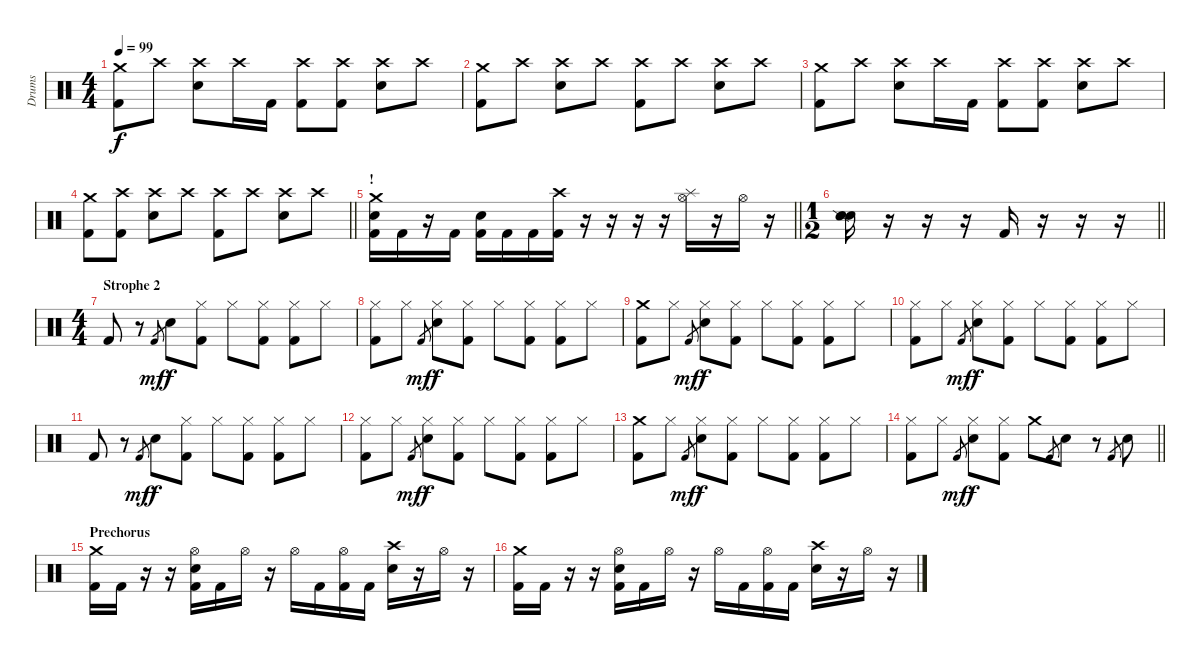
\track ("Drums" "Drums") {instrument percussion}
\staff {score}
\articulation defaults
\ts (4 4)
\tempo 99
\clef neutral
\ks c
("Crash medium (hit)" "Kick (hit) 2").8{dy f} "Crash high (hit)".8 ("Crash high (hit)" "Electric Snare (hit)").8 "Crash high (hit)".16 "Kick (hit) 2".16 ("Crash high (hit)" "Kick (hit) 2").8 ("Crash high (hit)" "Kick (hit) 2").8 ("Crash high (hit)" "Electric Snare (hit)").8 "Crash high (hit)".8 |
("Crash medium (hit)" "Kick (hit) 2").8 "Crash high (hit)".8 ("Crash high (hit)" "Electric Snare (hit)").8 "Crash high (hit)".8 ("Crash high (hit)" "Kick (hit) 2").8 "Crash high (hit)".8 ("Crash high (hit)" "Electric Snare (hit)").8 "Crash high (hit)".8 |
("Crash medium (hit)" "Kick (hit) 2").8 "Crash high (hit)".8 ("Crash high (hit)" "Electric Snare (hit)").8 "Crash high (hit)".16 "Kick (hit) 2".16 ("Crash high (hit)" "Kick (hit) 2").8 ("Crash high (hit)" "Kick (hit) 2").8 ("Crash high (hit)" "Electric Snare (hit)").8 "Crash high (hit)".8 |
\barLineRight lightlight
("Crash medium (hit)" "Kick (hit) 2").8 ("Crash high (hit)" "Kick (hit) 2").8 ("Crash high (hit)" "Electric Snare (hit)").8 "Crash high (hit)".8 ("Crash high (hit)" "Kick (hit) 2").8 "Crash high (hit)".8 ("Crash high (hit)" "Electric Snare (hit)").8 "Crash high (hit)".8 |
\section ("" "!")
\barLineRight lightlight
("Crash medium (hit)" "Electric Snare (hit)" "Kick (hit) 2").16 "Kick (hit) 2".16 r.16 "Kick (hit) 2".16 ("Electric Snare (hit)" "Kick (hit) 2").16 "Kick (hit) 2".16 "Kick (hit) 2".16 ("Crash high (hit)" "Kick (hit) 2").16 r.16 r.16 r.16 r.16 ("Splash (hit)" "Hi-Hat (open)").16 r.16 "Hi-Hat (open)".16 r.16 |
\ts (1 2)
\barLineRight lightlight
("Electric Snare (hit)" "Snare (hit) 2" "Snare (side stick) 2").16 r.16 r.16 r.16 "Kick (hit) 2".16 r.16 r.16 r.16 |
\ts (4 4)
\section ("" "Strophe 2")
"Kick (hit) 2".8 r.8 "Kick (hit) 2".8{gr dy mf} "Electric Snare (hit)".8{dy f} ("Hi-Hat (closed)" "Kick (hit) 2").8 "Hi-Hat (closed)".8 ("Hi-Hat (closed)" "Kick (hit) 2").8 ("Hi-Hat (closed)" "Kick (hit) 2").8 "Hi-Hat (closed)".8 |
("Hi-Hat (closed)" "Kick (hit) 2").8 "Hi-Hat (closed)".8 "Kick (hit) 2".8{gr dy mf} ("Hi-Hat (closed)" "Electric Snare (hit)").8{dy f} ("Hi-Hat (closed)" "Kick (hit) 2").8 "Hi-Hat (closed)".8 ("Hi-Hat (closed)" "Kick (hit) 2").8 ("Hi-Hat (closed)" "Kick (hit) 2").8 "Hi-Hat (closed)".8 |
("Crash medium (hit)" "Kick (hit) 2").8 "Hi-Hat (closed)".8 "Kick (hit) 2".8{gr dy mf} ("Hi-Hat (closed)" "Electric Snare (hit)").8{dy f} ("Hi-Hat (closed)" "Kick (hit) 2").8 "Hi-Hat (closed)".8 ("Hi-Hat (closed)" "Kick (hit) 2").8 ("Hi-Hat (closed)" "Kick (hit) 2").8 "Hi-Hat (closed)".8 |
("Hi-Hat (closed)" "Kick (hit) 2").8 "Hi-Hat (closed)".8 "Kick (hit) 2".8{gr dy mf} ("Hi-Hat (closed)" "Electric Snare (hit)").8{dy f} ("Hi-Hat (closed)" "Kick (hit) 2").8 "Hi-Hat (closed)".8 ("Hi-Hat (closed)" "Kick (hit) 2").8 ("Hi-Hat (closed)" "Kick (hit) 2").8 "Hi-Hat (closed)".8 |
"Kick (hit) 2".8 r.8 "Kick (hit) 2".8{gr dy mf} "Electric Snare (hit)".8{dy f} ("Hi-Hat (closed)" "Kick (hit) 2").8 "Hi-Hat (closed)".8 ("Hi-Hat (closed)" "Kick (hit) 2").8 ("Hi-Hat (closed)" "Kick (hit) 2").8 "Hi-Hat (closed)".8 |
("Hi-Hat (closed)" "Kick (hit) 2").8 "Hi-Hat (closed)".8 "Kick (hit) 2".8{gr dy mf} ("Hi-Hat (closed)" "Electric Snare (hit)").8{dy f} ("Hi-Hat (closed)" "Kick (hit) 2").8 "Hi-Hat (closed)".8 ("Hi-Hat (closed)" "Kick (hit) 2").8 ("Hi-Hat (closed)" "Kick (hit) 2").8 "Hi-Hat (closed)".8 |
("Crash medium (hit)" "Kick (hit) 2").8 "Hi-Hat (closed)".8 "Kick (hit) 2".8{gr dy mf} ("Hi-Hat (closed)" "Electric Snare (hit)").8{dy f} ("Hi-Hat (closed)" "Kick (hit) 2").8 "Hi-Hat (closed)".8 ("Hi-Hat (closed)" "Kick (hit) 2").8 ("Hi-Hat (closed)" "Kick (hit) 2").8 "Hi-Hat (closed)".8 |
\barLineRight lightlight
("Hi-Hat (closed)" "Kick (hit) 2").8 "Hi-Hat (closed)".8 "Kick (hit) 2".8{gr dy mf} ("Hi-Hat (closed)" "Electric Snare (hit)").8{dy f} ("Hi-Hat (closed)" "Kick (hit) 2").8 "Crash medium (hit)".8 "Kick (hit) 2".8{gr} "Electric Snare (hit)".8 r.8 "Kick (hit) 2".8{gr} "Electric Snare (hit)".8 |
\section ("" "Prechorus")
("Crash medium (hit)" "Kick (hit) 2").16 "Kick (hit) 2".16 r.16 r.16 ("Hi-Hat (open)" "Electric Snare (hit)" "Kick (hit) 2").16 "Kick (hit) 2".16 "Hi-Hat (open)".16 r.16 "Hi-Hat (open)".16 "Kick (hit) 2".16 ("Hi-Hat (open)" "Kick (hit) 2").16 "Kick (hit) 2".16 ("Crash high (hit)" "Electric Snare (hit)").16 r.16 "Hi-Hat (open)".16 r.16 |
("Crash medium (hit)" "Kick (hit) 2").16 "Kick (hit) 2".16 r.16 r.16 ("Hi-Hat (open)" "Electric Snare (hit)" "Kick (hit) 2").16 "Kick (hit) 2".16 "Hi-Hat (open)".16 r.16 "Hi-Hat (open)".16 "Kick (hit) 2".16 ("Hi-Hat (open)" "Kick (hit) 2").16 "Kick (hit) 2".16 ("Crash high (hit)" "Electric Snare (hit)").16 r.16 "Hi-Hat (open)".16 r.16
